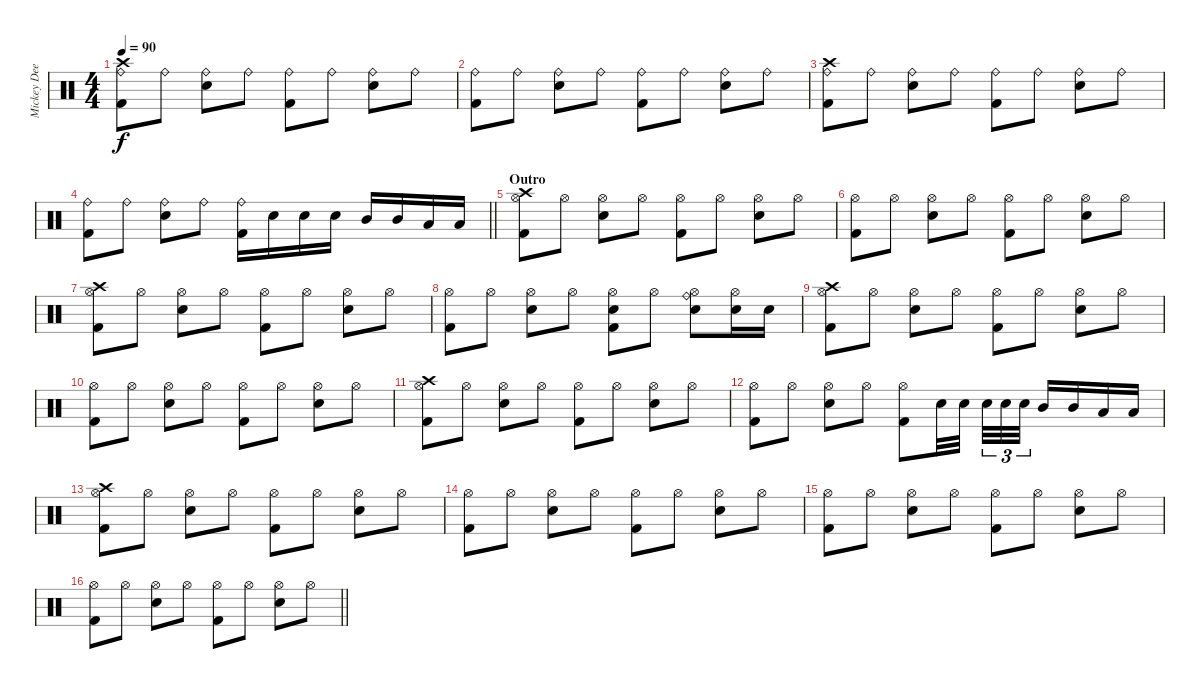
\track ("Mickey Dee" "Mickey Dee") {instrument percussion}
\staff {score}
\articulation defaults
\ts (4 4)
\tempo 90
\clef neutral
\ks c
("Crash high (hit)" "Ride (bell)" "Kick (hit) 2").8{dy f} "Ride (bell)".8 ("Ride (bell)" "Snare (hit) 2").8 "Ride (bell)".8 ("Ride (bell)" "Kick (hit) 2").8 "Ride (bell)".8 ("Ride (bell)" "Snare (hit) 2").8 "Ride (bell)".8 |
("Ride (bell)" "Kick (hit) 2").8 "Ride (bell)".8 ("Ride (bell)" "Snare (hit) 2").8 "Ride (bell)".8 ("Ride (bell)" "Kick (hit) 2").8 "Ride (bell)".8 ("Ride (bell)" "Snare (hit) 2").8 "Ride (bell)".8 |
("Crash high (hit)" "Ride (bell)" "Kick (hit) 2").8 "Ride (bell)".8 ("Ride (bell)" "Snare (hit) 2").8 "Ride (bell)".8 ("Ride (bell)" "Kick (hit) 2").8 "Ride (bell)".8 ("Ride (bell)" "Snare (hit) 2").8 "Ride (bell)".8 |
\barLineRight lightlight
("Ride (bell)" "Kick (hit) 2").8 "Ride (bell)".8 ("Ride (bell)" "Snare (hit) 2").8 "Ride (bell)".8 ("Ride (bell)" "Kick (hit) 2").16 "Snare (hit) 2".16 "Snare (hit) 2".16 "Snare (hit) 2".16 "Mid Tom (hit)".16 "Mid Tom (hit)".16 "Low Tom (hit)".16 "Low Tom (hit)".16 |
\section ("" "Outro")
("Crash high (hit)" "Hi-Hat (open)" "Kick (hit) 2").8 "Hi-Hat (open)".8 ("Hi-Hat (open)" "Snare (hit) 2").8 "Hi-Hat (open)".8 ("Hi-Hat (open)" "Kick (hit) 2").8 "Hi-Hat (open)".8 ("Hi-Hat (open)" "Snare (hit) 2").8 "Hi-Hat (open)".8 |
("Hi-Hat (open)" "Kick (hit) 2").8 "Hi-Hat (open)".8 ("Hi-Hat (open)" "Snare (hit) 2").8 "Hi-Hat (open)".8 ("Hi-Hat (open)" "Kick (hit) 2").8 "Hi-Hat (open)".8 ("Hi-Hat (open)" "Snare (hit) 2").8 "Hi-Hat (open)".8 |
("Crash high (hit)" "Hi-Hat (open)" "Kick (hit) 2").8 "Hi-Hat (open)".8 ("Hi-Hat (open)" "Snare (hit) 2").8 "Hi-Hat (open)".8 ("Hi-Hat (open)" "Kick (hit) 2").8 "Hi-Hat (open)".8 ("Hi-Hat (open)" "Snare (hit) 2").8 "Hi-Hat (open)".8 |
("Hi-Hat (open)" "Kick (hit) 2").8 "Hi-Hat (open)".8 ("Hi-Hat (open)" "Snare (hit) 2").8 "Hi-Hat (open)".8 ("Snare (hit) 2" "Hi-Hat (open)" "Kick (hit) 2").8 "Hi-Hat (open)".8 ("Ride (bell)" "Hi-Hat (open)" "Snare (hit) 2").8 ("Hi-Hat (open)" "Snare (hit) 2").16 "Snare (hit) 2".16 |
("Crash high (hit)" "Hi-Hat (open)" "Kick (hit) 2").8 "Hi-Hat (open)".8 ("Hi-Hat (open)" "Snare (hit) 2").8 "Hi-Hat (open)".8 ("Hi-Hat (open)" "Kick (hit) 2").8 "Hi-Hat (open)".8 ("Hi-Hat (open)" "Snare (hit) 2").8 "Hi-Hat (open)".8 |
("Hi-Hat (open)" "Kick (hit) 2").8 "Hi-Hat (open)".8 ("Hi-Hat (open)" "Snare (hit) 2").8 "Hi-Hat (open)".8 ("Hi-Hat (open)" "Kick (hit) 2").8 "Hi-Hat (open)".8 ("Hi-Hat (open)" "Snare (hit) 2").8 "Hi-Hat (open)".8 |
("Crash high (hit)" "Hi-Hat (open)" "Kick (hit) 2").8 "Hi-Hat (open)".8 ("Hi-Hat (open)" "Snare (hit) 2").8 "Hi-Hat (open)".8 ("Hi-Hat (open)" "Kick (hit) 2").8 "Hi-Hat (open)".8 ("Hi-Hat (open)" "Snare (hit) 2").8 "Hi-Hat (open)".8 |
("Hi-Hat (open)" "Kick (hit) 2").8 "Hi-Hat (open)".8 ("Hi-Hat (open)" "Snare (hit) 2").8 "Hi-Hat (open)".8 ("Hi-Hat (open)" "Kick (hit) 2").8 "Snare (hit) 2".32 "Snare (hit) 2".32{beam splitsecondary} "Snare (hit) 2".32{tu (3 2)} "Snare (hit) 2".32{tu (3 2)} "Snare (hit) 2".32{tu (3 2)} "Mid Tom (hit)".16 "Mid Tom (hit)".16 "Low Tom (hit)".16 "Low Tom (hit)".16 |
("Crash high (hit)" "Hi-Hat (open)" "Kick (hit) 2").8 "Hi-Hat (open)".8 ("Hi-Hat (open)" "Snare (hit) 2").8 "Hi-Hat (open)".8 ("Hi-Hat (open)" "Kick (hit) 2").8 "Hi-Hat (open)".8 ("Hi-Hat (open)" "Snare (hit) 2").8 "Hi-Hat (open)".8 |
("Hi-Hat (open)" "Kick (hit) 2").8 "Hi-Hat (open)".8 ("Hi-Hat (open)" "Snare (hit) 2").8 "Hi-Hat (open)".8 ("Hi-Hat (open)" "Kick (hit) 2").8 "Hi-Hat (open)".8 ("Hi-Hat (open)" "Snare (hit) 2").8 "Hi-Hat (open)".8 |
("Hi-Hat (open)" "Kick (hit) 2").8 "Hi-Hat (open)".8 ("Hi-Hat (open)" "Snare (hit) 2").8 "Hi-Hat (open)".8 ("Hi-Hat (open)" "Kick (hit) 2").8 "Hi-Hat (open)".8 ("Hi-Hat (open)" "Snare (hit) 2").8 "Hi-Hat (open)".8 |
\barLineRight lightlight
("Hi-Hat (open)" "Kick (hit) 2").8 "Hi-Hat (open)".8 ("Hi-Hat (open)" "Snare (hit) 2").8 "Hi-Hat (open)".8 ("Hi-Hat (open)" "Kick (hit) 2").8 "Hi-Hat (open)".8 ("Hi-Hat (open)" "Snare (hit) 2").8 "Hi-Hat (open)".8
